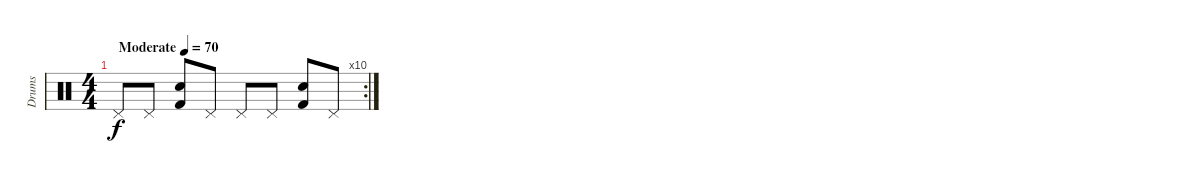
\track ("Drums" "Drums") {instrument percussion}
\staff {score}
\articulation defaults
\rc 10
\ts (4 4)
\tempo (70 "Moderate")
\clef neutral
\ks c "Pedal Hi-Hat (hit)".8{dy f} "Pedal Hi-Hat (hit)".8
("Snare (hit) 2" "Kick (hit) 2").8 "Pedal Hi-Hat (hit)".8 "Pedal Hi-Hat (hit)".8 "Pedal Hi-Hat (hit)".8 ("Snare (hit) 2" "Kick (hit) 2").8 "Pedal Hi-Hat (hit)".8
